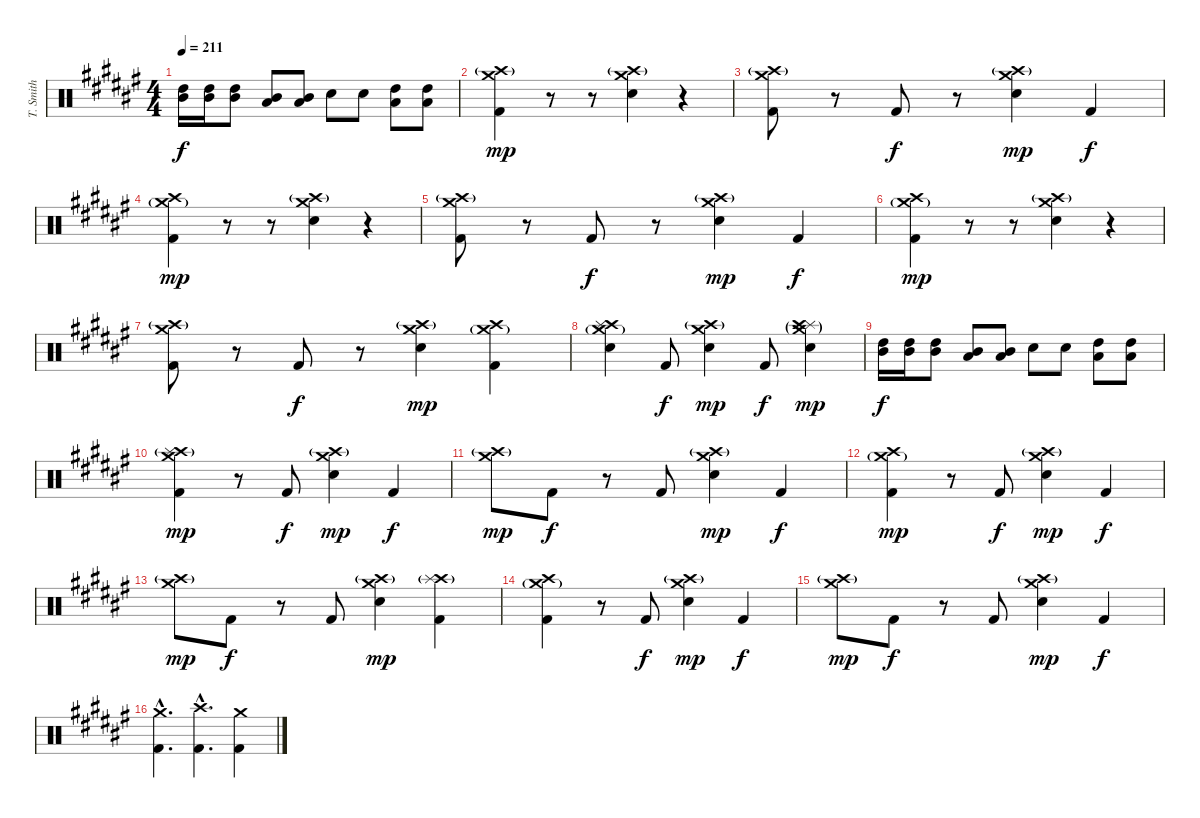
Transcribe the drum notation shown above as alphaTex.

\track ("T. Smith" "T. Smith") {instrument percussion}
\staff {score}
\articulation defaults
\ts (4 4)
\tempo 211
\clef neutral
\ks d#minor
("High Tom (hit)" "Mid Tom (hit)").16{dy f} ("High Tom (hit)" "Mid Tom (hit)").16 ("High Tom (hit)" "Mid Tom (hit)").8 ("Low Tom (hit)" "Mid Tom (hit)").8 ("Low Tom (hit)" "Mid Tom (hit)").8 "Electric Snare (hit)".8 "Electric Snare (hit)".8 ("Low Tom (hit)" "High Tom (hit)").8 ("Low Tom (hit)" "High Tom (hit)").8 |
("Crash medium (hit)" "Crash high (hit)"{g} "Kick (hit) 2").4{dy mp volume 13 balance 8} r.8 r.8 ("Crash medium (hit)" "Crash high (hit)"{g} "Electric Snare (hit)").4 r.4 |
("Crash medium (hit)" "Crash high (hit)"{g} "Kick (hit) 2").8 r.8 "Kick (hit) 2".8{dy f} r.8 ("Crash medium (hit)" "Crash high (hit)"{g} "Electric Snare (hit)").4{dy mp} "Kick (hit) 2".4{dy f} |
("Crash medium (hit)"{g} "Crash high (hit)" "Kick (hit) 2").4{dy mp} r.8 r.8 ("Crash medium (hit)" "Crash high (hit)"{g} "Electric Snare (hit)").4 r.4 |
("Crash medium (hit)" "Crash high (hit)"{g} "Kick (hit) 2").8 r.8 "Kick (hit) 2".8{dy f} r.8 ("Crash medium (hit)" "Crash high (hit)"{g} "Electric Snare (hit)").4{dy mp} "Kick (hit) 2".4{dy f} |
("Crash medium (hit)"{g} "Crash high (hit)" "Kick (hit) 2").4{dy mp} r.8 r.8 ("Crash medium (hit)" "Crash high (hit)"{g} "Electric Snare (hit)").4 r.4 |
("Crash medium (hit)" "Crash high (hit)"{g} "Kick (hit) 2").8 r.8 "Kick (hit) 2".8{dy f} r.8 ("Crash medium (hit)" "Crash high (hit)"{g} "Electric Snare (hit)").4{dy mp} ("Crash medium (hit)"{g} "Crash high (hit)" "Kick (hit) 2").4 |
("Crash medium (hit)"{g} "Crash high (hit)" "Splash (hit)" "Electric Snare (hit)").4 "Kick (hit) 2".8{dy f} ("Crash medium (hit)" "Crash high (hit)"{g} "Electric Snare (hit)").4{dy mp} "Kick (hit) 2".8{dy f} ("Splash (hit)" "Crash high (hit)"{g} "Crash medium (hit)"{g} "Electric Snare (hit)").4{dy mp} |
("High Tom (hit)" "Mid Tom (hit)").16{dy f} ("High Tom (hit)" "Mid Tom (hit)").16 ("High Tom (hit)" "Mid Tom (hit)").8 ("Low Tom (hit)" "Mid Tom (hit)").8 ("Low Tom (hit)" "Mid Tom (hit)").8 "Electric Snare (hit)".8 "Electric Snare (hit)".8 ("Low Tom (hit)" "High Tom (hit)").8 ("Low Tom (hit)" "High Tom (hit)").8 |
("Crash medium (hit)" "Crash high (hit)"{g} "Splash (hit)" "Kick (hit) 2").4{dy mp} r.8 "Kick (hit) 2".8{dy f} ("Crash medium (hit)" "Crash high (hit)"{g} "Electric Snare (hit)").4{dy mp} "Kick (hit) 2".4{dy f} |
("Crash medium (hit)" "Crash high (hit)"{g}).8{dy mp} "Kick (hit) 2".8{dy f} r.8 "Kick (hit) 2".8 ("Crash medium (hit)" "Crash high (hit)"{g} "Electric Snare (hit)").4{dy mp} "Kick (hit) 2".4{dy f} |
("Crash medium (hit)"{g} "Crash high (hit)" "Kick (hit) 2").4{dy mp} r.8 "Kick (hit) 2".8{dy f} ("Crash medium (hit)" "Crash high (hit)"{g} "Electric Snare (hit)").4{dy mp} "Kick (hit) 2".4{dy f} |
("Crash medium (hit)" "Crash high (hit)"{g}).8{dy mp} "Kick (hit) 2".8{dy f} r.8 "Kick (hit) 2".8 ("Crash medium (hit)" "Crash high (hit)"{g} "Electric Snare (hit)").4{dy mp} ("Crash high (hit)"{g} "Splash (hit)" "Kick (hit) 2").4 |
("Crash medium (hit)"{g} "Crash high (hit)" "Kick (hit) 2").4 r.8 "Kick (hit) 2".8{dy f} ("Crash medium (hit)" "Crash high (hit)"{g} "Electric Snare (hit)").4{dy mp} "Kick (hit) 2".4{dy f} |
("Crash medium (hit)" "Crash high (hit)"{g}).8{dy mp} "Kick (hit) 2".8{dy f} r.8 "Kick (hit) 2".8 ("Crash medium (hit)" "Crash high (hit)"{g} "Electric Snare (hit)").4{dy mp} "Kick (hit) 2".4{dy f} |
("Crash medium (hit)"{hac} "Kick (hit) 2"{hac}).4{d} ("Crash high (hit)"{hac} "Kick (hit) 2"{hac}).4{d} ("Crash medium (hit)" "Kick (hit) 2").4
